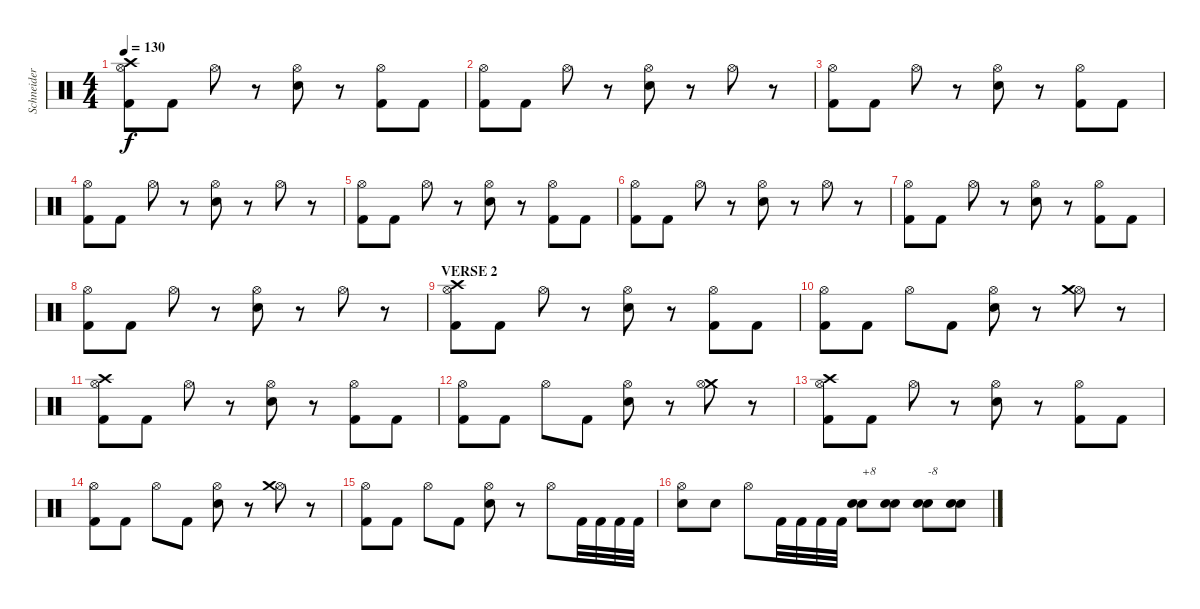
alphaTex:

\track ("Schneider - Drums" "Schneider ") {instrument percussion}
\staff {score}
\articulation defaults
\ts (4 4)
\tempo 130
\clef neutral
\ks c
("Kick (hit) 2" "Hi-Hat (open)" "Crash high (hit)").8{dy f} "Kick (hit) 2".8 "Hi-Hat (open)".8 r.8 ("Electric Snare (hit)" "Hi-Hat (open)").8 r.8 ("Kick (hit) 2" "Hi-Hat (open)").8 "Kick (hit) 2".8 |
("Kick (hit) 2" "Hi-Hat (open)").8 "Kick (hit) 2".8 "Hi-Hat (open)".8 r.8 ("Electric Snare (hit)" "Hi-Hat (open)").8 r.8 "Hi-Hat (open)".8 r.8 |
("Kick (hit) 2" "Hi-Hat (open)").8 "Kick (hit) 2".8 "Hi-Hat (open)".8 r.8 ("Electric Snare (hit)" "Hi-Hat (open)").8 r.8 ("Kick (hit) 2" "Hi-Hat (open)").8 "Kick (hit) 2".8 |
("Kick (hit) 2" "Hi-Hat (open)").8 "Kick (hit) 2".8 "Hi-Hat (open)".8 r.8 ("Electric Snare (hit)" "Hi-Hat (open)").8 r.8 "Hi-Hat (open)".8 r.8 |
("Kick (hit) 2" "Hi-Hat (open)").8 "Kick (hit) 2".8 "Hi-Hat (open)".8 r.8 ("Electric Snare (hit)" "Hi-Hat (open)").8 r.8 ("Kick (hit) 2" "Hi-Hat (open)").8 "Kick (hit) 2".8 |
("Kick (hit) 2" "Hi-Hat (open)").8 "Kick (hit) 2".8 "Hi-Hat (open)".8 r.8 ("Electric Snare (hit)" "Hi-Hat (open)").8 r.8 "Hi-Hat (open)".8 r.8 |
("Kick (hit) 2" "Hi-Hat (open)").8 "Kick (hit) 2".8 "Hi-Hat (open)".8 r.8 ("Electric Snare (hit)" "Hi-Hat (open)").8 r.8 ("Kick (hit) 2" "Hi-Hat (open)").8 "Kick (hit) 2".8 |
("Kick (hit) 2" "Hi-Hat (open)").8 "Kick (hit) 2".8 "Hi-Hat (open)".8 r.8 ("Electric Snare (hit)" "Hi-Hat (open)").8 r.8 "Hi-Hat (open)".8 r.8 |
\section ("" "VERSE 2")
("Kick (hit) 2" "Hi-Hat (open)" "Crash high (hit)").8 "Kick (hit) 2".8 "Hi-Hat (open)".8 r.8 ("Electric Snare (hit)" "Hi-Hat (open)").8 r.8 ("Kick (hit) 2" "Hi-Hat (open)").8 "Kick (hit) 2".8 |
("Kick (hit) 2" "Hi-Hat (open)").8 "Kick (hit) 2".8 "Hi-Hat (open)".8 "Kick (hit) 2".8 ("Electric Snare (hit)" "Hi-Hat (open)").8 r.8 ("Hi-Hat (open)" "Crash medium (hit)").8 r.8 |
("Kick (hit) 2" "Hi-Hat (open)" "Crash high (hit)").8 "Kick (hit) 2".8 "Hi-Hat (open)".8 r.8 ("Electric Snare (hit)" "Hi-Hat (open)").8 r.8 ("Kick (hit) 2" "Hi-Hat (open)").8 "Kick (hit) 2".8 |
("Kick (hit) 2" "Hi-Hat (open)").8 "Kick (hit) 2".8 "Hi-Hat (open)".8 "Kick (hit) 2".8 ("Electric Snare (hit)" "Hi-Hat (open)").8 r.8 ("Crash medium (hit)" "Hi-Hat (open)").8 r.8 |
("Kick (hit) 2" "Hi-Hat (open)" "Crash high (hit)").8 "Kick (hit) 2".8 "Hi-Hat (open)".8 r.8 ("Electric Snare (hit)" "Hi-Hat (open)").8 r.8 ("Kick (hit) 2" "Hi-Hat (open)").8 "Kick (hit) 2".8 |
("Kick (hit) 2" "Hi-Hat (open)").8 "Kick (hit) 2".8 "Hi-Hat (open)".8 "Kick (hit) 2".8 ("Electric Snare (hit)" "Hi-Hat (open)").8 r.8 ("Hi-Hat (open)" "Crash medium (hit)").8 r.8 |
("Kick (hit) 2" "Hi-Hat (open)").8 "Kick (hit) 2".8 "Hi-Hat (open)".8 "Kick (hit) 2".8 ("Electric Snare (hit)" "Hi-Hat (open)").8 r.8 "Hi-Hat (open)".8 "Kick (hit) 2".32 "Kick (hit) 2".32 "Kick (hit) 2".32 "Kick (hit) 2".32 |
("Electric Snare (hit)" "Hi-Hat (open)").8 "Electric Snare (hit)".8 "Hi-Hat (open)".8 "Kick (hit) 2".32 "Kick (hit) 2".32 "Kick (hit) 2".32 "Kick (hit) 2".32 ("Electric Snare (hit)" "Electric Snare (hit)").8{txt "+8" balance 16} ("Electric Snare (hit)" "Electric Snare (hit)").8 ("Electric Snare (hit)" "Electric Snare (hit)").8{txt "-8" balance 0} ("Electric Snare (hit)" "Electric Snare (hit)").8
